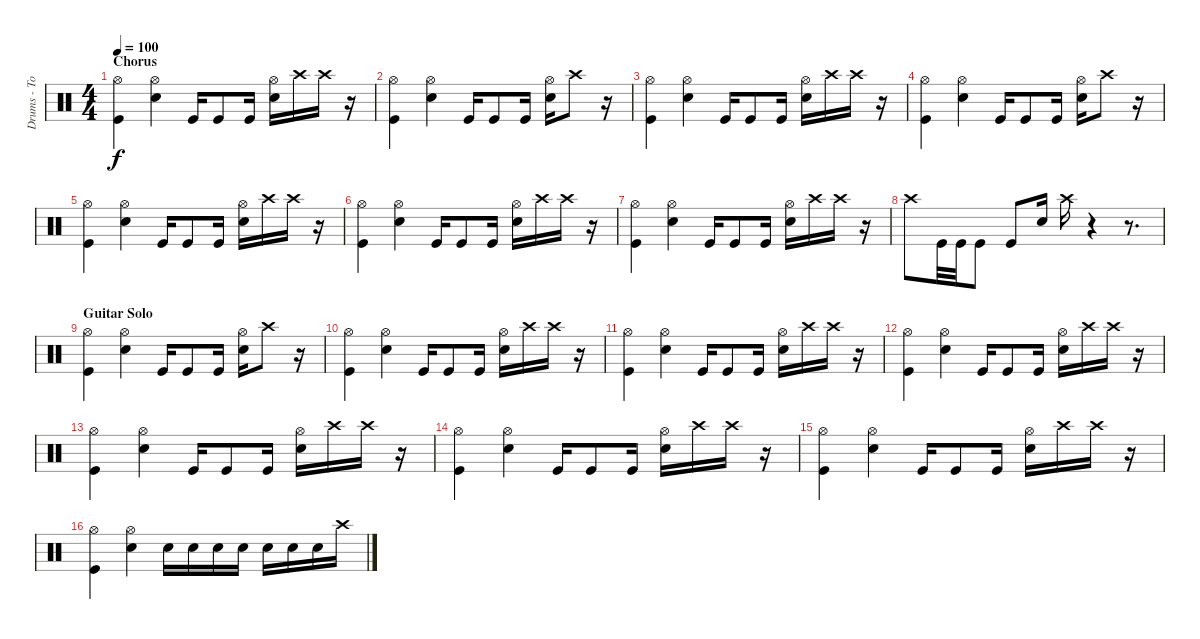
\track ("Drums - Tommy" "Drums - To") {instrument percussion}
\staff {score}
\articulation defaults
\ts (4 4)
\section ("" "Chorus")
\tempo 100
\clef neutral
\ks c
("Hi-Hat (open)" "Kick (hit)").4{dy f} ("Hi-Hat (open)" "Snare (hit) 2").4 "Kick (hit)".16 "Kick (hit)".8 "Kick (hit)".16 ("Hi-Hat (open)" "Snare (hit) 2").16 "Crash high (hit)".16 "Crash high (hit)".16 r.16 |
("Hi-Hat (open)" "Kick (hit)").4 ("Hi-Hat (open)" "Snare (hit) 2").4 "Kick (hit)".16 "Kick (hit)".8 "Kick (hit)".16 ("Hi-Hat (open)" "Snare (hit) 2").16 "Crash high (hit)".8 r.16 |
("Hi-Hat (open)" "Kick (hit)").4 ("Hi-Hat (open)" "Snare (hit) 2").4 "Kick (hit)".16 "Kick (hit)".8 "Kick (hit)".16 ("Hi-Hat (open)" "Snare (hit) 2").16 "Crash high (hit)".16 "Crash high (hit)".16 r.16 |
("Hi-Hat (open)" "Kick (hit)").4 ("Hi-Hat (open)" "Snare (hit) 2").4 "Kick (hit)".16 "Kick (hit)".8 "Kick (hit)".16 ("Hi-Hat (open)" "Snare (hit) 2").16 "Crash high (hit)".8 r.16 |
("Hi-Hat (open)" "Kick (hit)").4 ("Hi-Hat (open)" "Snare (hit) 2").4 "Kick (hit)".16 "Kick (hit)".8 "Kick (hit)".16 ("Hi-Hat (open)" "Snare (hit) 2").16 "Crash high (hit)".16 "Crash high (hit)".16 r.16 |
("Hi-Hat (open)" "Kick (hit)").4 ("Hi-Hat (open)" "Snare (hit) 2").4 "Kick (hit)".16 "Kick (hit)".8 "Kick (hit)".16 ("Hi-Hat (open)" "Snare (hit) 2").16 "Crash high (hit)".16 "Crash high (hit)".16 r.16 |
("Hi-Hat (open)" "Kick (hit)").4 ("Hi-Hat (open)" "Snare (hit) 2").4 "Kick (hit)".16 "Kick (hit)".8 "Kick (hit)".16 ("Hi-Hat (open)" "Snare (hit) 2").16 "Crash high (hit)".16 "Crash high (hit)".16 r.16 |
"Crash high (hit)".8 "Kick (hit)".32 "Kick (hit)".32 "Kick (hit)".8 "Kick (hit)".8 "Snare (hit) 2".16 "Crash high (hit)".16 r.4 r.8{d} |
\section ("" "Guitar Solo")
("Hi-Hat (open)" "Kick (hit)").4 ("Hi-Hat (open)" "Snare (hit) 2").4 "Kick (hit)".16 "Kick (hit)".8 "Kick (hit)".16 ("Hi-Hat (open)" "Snare (hit) 2").16 "Crash high (hit)".8 r.16 |
("Hi-Hat (open)" "Kick (hit)").4 ("Hi-Hat (open)" "Snare (hit) 2").4 "Kick (hit)".16 "Kick (hit)".8 "Kick (hit)".16 ("Hi-Hat (open)" "Snare (hit) 2").16 "Crash high (hit)".16 "Crash high (hit)".16 r.16 |
("Hi-Hat (open)" "Kick (hit)").4 ("Hi-Hat (open)" "Snare (hit) 2").4 "Kick (hit)".16 "Kick (hit)".8 "Kick (hit)".16 ("Hi-Hat (open)" "Snare (hit) 2").16 "Crash high (hit)".16 "Crash high (hit)".16 r.16 |
("Hi-Hat (open)" "Kick (hit)").4 ("Hi-Hat (open)" "Snare (hit) 2").4 "Kick (hit)".16 "Kick (hit)".8 "Kick (hit)".16 ("Hi-Hat (open)" "Snare (hit) 2").16 "Crash high (hit)".16 "Crash high (hit)".16 r.16 |
("Hi-Hat (open)" "Kick (hit)").4 ("Hi-Hat (open)" "Snare (hit) 2").4 "Kick (hit)".16 "Kick (hit)".8 "Kick (hit)".16 ("Hi-Hat (open)" "Snare (hit) 2").16 "Crash high (hit)".16 "Crash high (hit)".16 r.16 |
("Hi-Hat (open)" "Kick (hit)").4 ("Hi-Hat (open)" "Snare (hit) 2").4 "Kick (hit)".16 "Kick (hit)".8 "Kick (hit)".16 ("Hi-Hat (open)" "Snare (hit) 2").16 "Crash high (hit)".16 "Crash high (hit)".16 r.16 |
("Hi-Hat (open)" "Kick (hit)").4 ("Hi-Hat (open)" "Snare (hit) 2").4 "Kick (hit)".16 "Kick (hit)".8 "Kick (hit)".16 ("Hi-Hat (open)" "Snare (hit) 2").16 "Crash high (hit)".16 "Crash high (hit)".16 r.16 |
("Hi-Hat (open)" "Kick (hit)").4 ("Hi-Hat (open)" "Snare (hit) 2").4 "Snare (hit) 2".16 "Snare (hit) 2".16 "Snare (hit) 2".16 "Snare (hit) 2".16 "Snare (hit) 2".16 "Snare (hit) 2".16 "Snare (hit) 2".16 "Crash high (hit)".16
